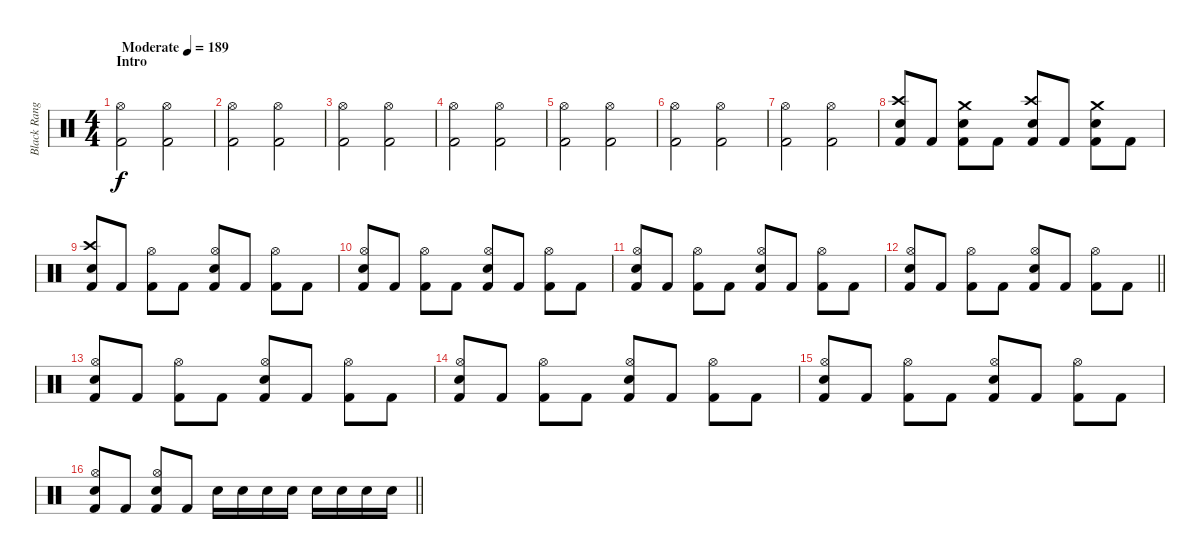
\track ("Black Ranger (Drums)" "Black Rang") {instrument percussion}
\staff {score}
\articulation defaults
\ts (4 4)
\section ("" "Intro")
\tempo (189 "Moderate")
\clef neutral
\ks c
("Kick (hit) 2" "Hi-Hat (open)").2{dy f} ("Kick (hit) 2" "Hi-Hat (open)").2 |
("Kick (hit) 2" "Hi-Hat (open)").2 ("Kick (hit) 2" "Hi-Hat (open)").2 |
("Kick (hit) 2" "Hi-Hat (open)").2 ("Kick (hit) 2" "Hi-Hat (open)").2 |
("Kick (hit) 2" "Hi-Hat (open)").2 ("Kick (hit) 2" "Hi-Hat (open)").2 |
("Kick (hit) 2" "Hi-Hat (open)").2 ("Kick (hit) 2" "Hi-Hat (open)").2 |
("Kick (hit) 2" "Hi-Hat (open)").2 ("Kick (hit) 2" "Hi-Hat (open)").2 |
("Kick (hit) 2" "Hi-Hat (open)").2 ("Kick (hit) 2" "Hi-Hat (open)").2 |
("Kick (hit) 2" "Crash high (hit)" "Snare (hit) 2").8 "Kick (hit) 2".8 ("Kick (hit) 2" "Crash medium (hit)" "Snare (hit) 2").8 "Kick (hit) 2".8 ("Kick (hit) 2" "Crash high (hit)" "Snare (hit) 2").8 "Kick (hit) 2".8 ("Kick (hit) 2" "Crash medium (hit)" "Snare (hit) 2").8 "Kick (hit) 2".8 |
("Kick (hit) 2" "Snare (hit) 2" "Crash high (hit)").8 "Kick (hit) 2".8 ("Kick (hit) 2" "Hi-Hat (open)").8 "Kick (hit) 2".8 ("Kick (hit) 2" "Snare (hit) 2" "Hi-Hat (open)").8 "Kick (hit) 2".8 ("Kick (hit) 2" "Hi-Hat (open)").8 "Kick (hit) 2".8 |
("Kick (hit) 2" "Snare (hit) 2" "Hi-Hat (open)").8 "Kick (hit) 2".8 ("Kick (hit) 2" "Hi-Hat (open)").8 "Kick (hit) 2".8 ("Kick (hit) 2" "Snare (hit) 2" "Hi-Hat (open)").8 "Kick (hit) 2".8 ("Kick (hit) 2" "Hi-Hat (open)").8 "Kick (hit) 2".8 |
("Kick (hit) 2" "Snare (hit) 2" "Hi-Hat (open)").8 "Kick (hit) 2".8 ("Kick (hit) 2" "Hi-Hat (open)").8 "Kick (hit) 2".8 ("Kick (hit) 2" "Snare (hit) 2" "Hi-Hat (open)").8 "Kick (hit) 2".8 ("Kick (hit) 2" "Hi-Hat (open)").8 "Kick (hit) 2".8 |
\barLineRight lightlight
("Kick (hit) 2" "Snare (hit) 2" "Hi-Hat (open)").8 "Kick (hit) 2".8 ("Kick (hit) 2" "Hi-Hat (open)").8 "Kick (hit) 2".8 ("Kick (hit) 2" "Snare (hit) 2" "Hi-Hat (open)").8 "Kick (hit) 2".8 ("Kick (hit) 2" "Hi-Hat (open)").8 "Kick (hit) 2".8 |
("Kick (hit) 2" "Snare (hit) 2" "Hi-Hat (open)").8 "Kick (hit) 2".8 ("Kick (hit) 2" "Hi-Hat (open)").8 "Kick (hit) 2".8 ("Kick (hit) 2" "Snare (hit) 2" "Hi-Hat (open)").8 "Kick (hit) 2".8 ("Kick (hit) 2" "Hi-Hat (open)").8 "Kick (hit) 2".8 |
("Kick (hit) 2" "Snare (hit) 2" "Hi-Hat (open)").8 "Kick (hit) 2".8 ("Kick (hit) 2" "Hi-Hat (open)").8 "Kick (hit) 2".8 ("Kick (hit) 2" "Snare (hit) 2" "Hi-Hat (open)").8 "Kick (hit) 2".8 ("Kick (hit) 2" "Hi-Hat (open)").8 "Kick (hit) 2".8 |
("Kick (hit) 2" "Snare (hit) 2" "Hi-Hat (open)").8 "Kick (hit) 2".8 ("Kick (hit) 2" "Hi-Hat (open)").8 "Kick (hit) 2".8 ("Kick (hit) 2" "Snare (hit) 2" "Hi-Hat (open)").8 "Kick (hit) 2".8 ("Kick (hit) 2" "Hi-Hat (open)").8 "Kick (hit) 2".8 |
\barLineRight lightlight
("Kick (hit) 2" "Hi-Hat (open)" "Snare (hit) 2").8 "Kick (hit) 2".8 ("Kick (hit) 2" "Snare (hit) 2" "Hi-Hat (open)").8 "Kick (hit) 2".8 "Snare (hit) 2".16 "Snare (hit) 2".16 "Snare (hit) 2".16 "Snare (hit) 2".16 "Snare (hit) 2".16 "Snare (hit) 2".16 "Snare (hit) 2".16 "Snare (hit) 2".16
